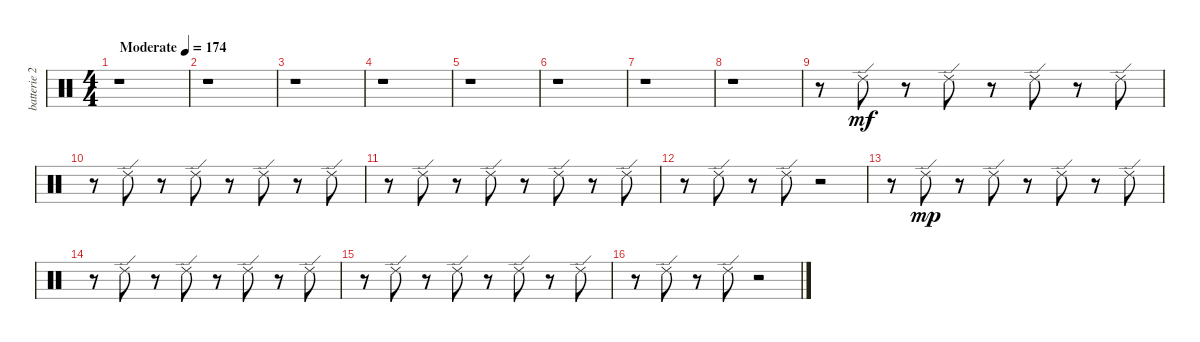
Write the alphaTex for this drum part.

\track ("batterie 2" "batterie 2") {instrument percussion}
\staff {score}
\articulation defaults
\ts (4 4)
\tempo (174 "Moderate")
\clef neutral
\ks c
r.1{dy mf} |
r.1 |
r.1 |
r.1 |
r.1 |
r.1 |
r.1 |
r.1 |
r.8 "Ride (edge) 2".8 r.8 "Ride (edge) 2".8 r.8 "Ride (edge) 2".8 r.8 "Ride (edge) 2".8 |
r.8 "Ride (edge) 2".8 r.8 "Ride (edge) 2".8 r.8 "Ride (edge) 2".8 r.8 "Ride (edge) 2".8 |
r.8 "Ride (edge) 2".8 r.8 "Ride (edge) 2".8 r.8 "Ride (edge) 2".8 r.8 "Ride (edge) 2".8 |
r.8 "Ride (edge) 2".8 r.8 "Ride (edge) 2".8 r.2 |
r.8 "Ride (edge) 2".8{dy mp} r.8 "Ride (edge) 2".8 r.8 "Ride (edge) 2".8 r.8 "Ride (edge) 2".8 |
r.8 "Ride (edge) 2".8 r.8 "Ride (edge) 2".8 r.8 "Ride (edge) 2".8 r.8 "Ride (edge) 2".8 |
r.8 "Ride (edge) 2".8 r.8 "Ride (edge) 2".8 r.8 "Ride (edge) 2".8 r.8 "Ride (edge) 2".8 |
r.8 "Ride (edge) 2".8 r.8 "Ride (edge) 2".8 r.2
